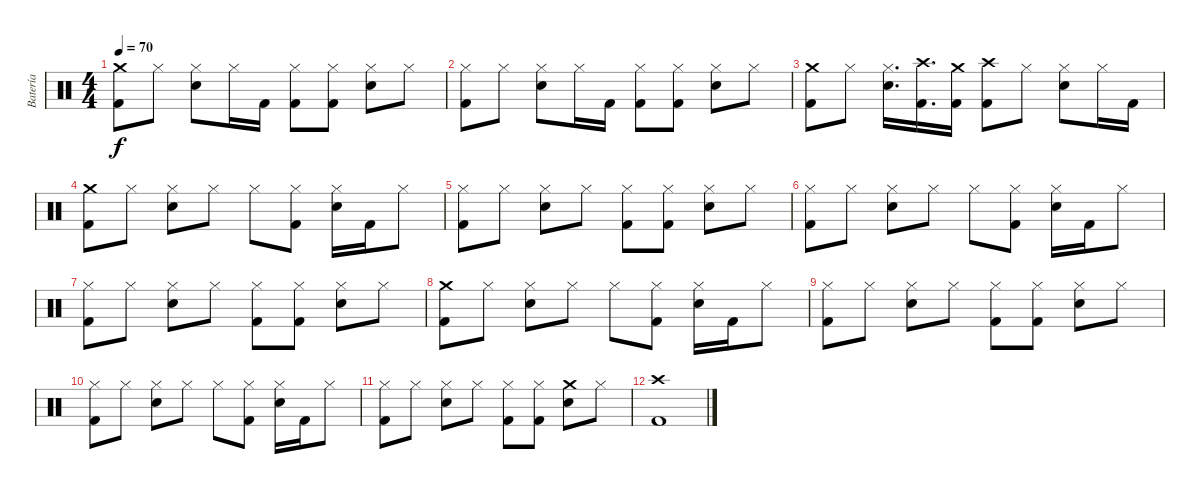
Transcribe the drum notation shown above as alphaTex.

\track ("Batería" "Batería") {instrument percussion}
\staff {score}
\articulation defaults
\ts (4 4)
\tempo 70
\clef neutral
\ks c
("Kick (hit) 2" "Crash medium (hit)").8{dy f} "Hi-Hat (closed)".8 ("Snare (hit) 2" "Hi-Hat (closed)").8 "Hi-Hat (closed)".16 "Kick (hit) 2".16 ("Kick (hit) 2" "Hi-Hat (closed)").8 ("Kick (hit) 2" "Hi-Hat (closed)").8 ("Snare (hit) 2" "Hi-Hat (closed)").8 "Hi-Hat (closed)".8 |
("Kick (hit) 2" "Hi-Hat (closed)").8 "Hi-Hat (closed)".8 ("Snare (hit) 2" "Hi-Hat (closed)").8 "Hi-Hat (closed)".16 "Kick (hit) 2".16 ("Kick (hit) 2" "Hi-Hat (closed)").8 ("Kick (hit) 2" "Hi-Hat (closed)").8 ("Snare (hit) 2" "Hi-Hat (closed)").8 "Hi-Hat (closed)".8 |
("Kick (hit) 2" "Crash medium (hit)").8 "Hi-Hat (closed)".8 ("Snare (hit) 2" "Hi-Hat (closed)").16{d} ("Crash high (hit)" "Kick (hit) 2").16{d} ("Crash medium (hit)" "Kick (hit) 2").16 ("Crash high (hit)" "Kick (hit) 2").8 "Hi-Hat (closed)".8 ("Snare (hit) 2" "Hi-Hat (closed)").8 "Hi-Hat (closed)".16 "Kick (hit) 2".16 |
("Kick (hit) 2" "Crash medium (hit)").8 "Hi-Hat (closed)".8 ("Snare (hit) 2" "Hi-Hat (closed)").8 "Hi-Hat (closed)".8 "Hi-Hat (closed)".8 ("Kick (hit) 2" "Hi-Hat (closed)").8 ("Snare (hit) 2" "Hi-Hat (closed)").16 "Kick (hit) 2".16 "Hi-Hat (closed)".8 |
("Kick (hit) 2" "Hi-Hat (closed)").8 "Hi-Hat (closed)".8 ("Snare (hit) 2" "Hi-Hat (closed)").8 "Hi-Hat (closed)".8 ("Kick (hit) 2" "Hi-Hat (closed)").8 ("Kick (hit) 2" "Hi-Hat (closed)").8 ("Snare (hit) 2" "Hi-Hat (closed)").8 "Hi-Hat (closed)".8 |
("Kick (hit) 2" "Hi-Hat (closed)").8 "Hi-Hat (closed)".8 ("Snare (hit) 2" "Hi-Hat (closed)").8 "Hi-Hat (closed)".8 "Hi-Hat (closed)".8 ("Kick (hit) 2" "Hi-Hat (closed)").8 ("Snare (hit) 2" "Hi-Hat (closed)").16 "Kick (hit) 2".16 "Hi-Hat (closed)".8 |
("Kick (hit) 2" "Hi-Hat (closed)").8 "Hi-Hat (closed)".8 ("Snare (hit) 2" "Hi-Hat (closed)").8 "Hi-Hat (closed)".8 ("Kick (hit) 2" "Hi-Hat (closed)").8 ("Kick (hit) 2" "Hi-Hat (closed)").8 ("Snare (hit) 2" "Hi-Hat (closed)").8 "Hi-Hat (closed)".8 |
("Kick (hit) 2" "Crash medium (hit)").8 "Hi-Hat (closed)".8 ("Snare (hit) 2" "Hi-Hat (closed)").8 "Hi-Hat (closed)".8 "Hi-Hat (closed)".8 ("Kick (hit) 2" "Hi-Hat (closed)").8 ("Snare (hit) 2" "Hi-Hat (closed)").16 "Kick (hit) 2".16 "Hi-Hat (closed)".8 |
("Kick (hit) 2" "Hi-Hat (closed)").8 "Hi-Hat (closed)".8 ("Snare (hit) 2" "Hi-Hat (closed)").8 "Hi-Hat (closed)".8 ("Kick (hit) 2" "Hi-Hat (closed)").8 ("Kick (hit) 2" "Hi-Hat (closed)").8 ("Snare (hit) 2" "Hi-Hat (closed)").8 "Hi-Hat (closed)".8 |
("Kick (hit) 2" "Hi-Hat (closed)").8 "Hi-Hat (closed)".8 ("Snare (hit) 2" "Hi-Hat (closed)").8 "Hi-Hat (closed)".8 "Hi-Hat (closed)".8 ("Kick (hit) 2" "Hi-Hat (closed)").8 ("Snare (hit) 2" "Hi-Hat (closed)").16 "Kick (hit) 2".16 "Hi-Hat (closed)".8 |
("Kick (hit) 2" "Hi-Hat (closed)").8 "Hi-Hat (closed)".8 ("Snare (hit) 2" "Hi-Hat (closed)").8 "Hi-Hat (closed)".8 ("Kick (hit) 2" "Hi-Hat (closed)").8 ("Kick (hit) 2" "Hi-Hat (closed)").8 ("Snare (hit) 2" "Crash medium (hit)").8 "Hi-Hat (closed)".8 |
("Kick (hit) 2" "Crash high (hit)").1
